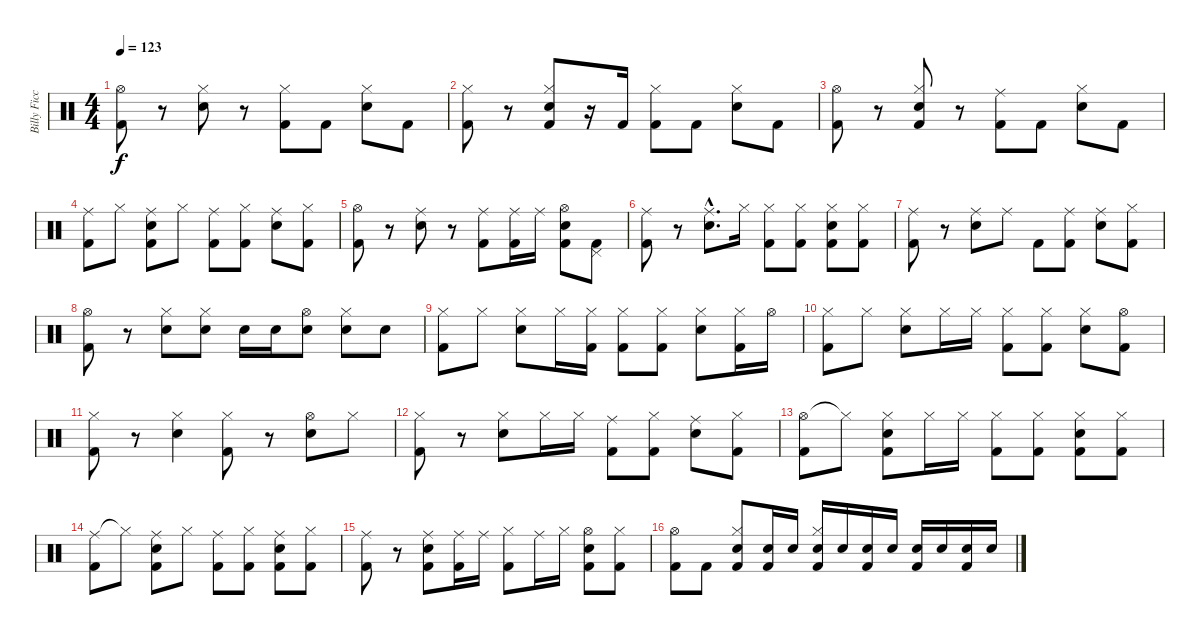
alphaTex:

\track ("Billy Ficca" "Billy Ficc") {instrument percussion}
\staff {score}
\articulation defaults
\ts (4 4)
\tempo 123
\clef neutral
\ks c
("Hi-Hat (open)" "Kick (hit) 2").8{dy f} r.8 ("Hi-Hat (closed)" "Snare (hit) 2").8 r.8 ("Hi-Hat (closed)" "Kick (hit) 2").8 "Kick (hit) 2".8 ("Hi-Hat (closed)" "Snare (hit) 2").8 "Kick (hit) 2".8 |
("Hi-Hat (closed)" "Kick (hit) 2").8 r.8 ("Hi-Hat (closed)" "Snare (hit) 2" "Kick (hit) 2").8 r.16 "Kick (hit) 2".16 ("Hi-Hat (closed)" "Kick (hit) 2").8 "Kick (hit) 2".8 ("Hi-Hat (closed)" "Snare (hit) 2").8 "Kick (hit) 2".8 |
("Hi-Hat (open)" "Kick (hit) 2").8 r.8 ("Hi-Hat (closed)" "Snare (hit) 2" "Kick (hit) 2").8 r.8 ("Ride (middle)" "Kick (hit) 2").8 "Kick (hit) 2".8 ("Hi-Hat (closed)" "Snare (hit) 2").8 "Kick (hit) 2".8 |
("Ride (middle)" "Kick (hit) 2").8 "Hi-Hat (closed)".8 ("Ride (middle)" "Snare (hit) 2" "Kick (hit) 2").8 "Hi-Hat (closed)".8 ("Ride (middle)" "Kick (hit) 2").8 ("Hi-Hat (closed)" "Kick (hit) 2").8 ("Ride (middle)" "Snare (hit) 2").8 ("Hi-Hat (closed)" "Kick (hit) 2").8 |
("Hi-Hat (open)" "Kick (hit) 2").8 r.8 ("Ride (middle)" "Snare (hit) 2").8 r.8 ("Ride (middle)" "Kick (hit) 2").8 ("Ride (middle)" "Kick (hit) 2").16 "Ride (middle)".16 ("Hi-Hat (open)" "Snare (hit) 2" "Kick (hit) 2").8 ("Pedal Hi-Hat (hit)" "Kick (hit) 2").8 |
("Ride (middle)" "Kick (hit) 2").8 r.8 ("Ride (middle)"{hac} "Snare (hit) 2"{hac}).8{d} "Hi-Hat (closed)".16 ("Hi-Hat (closed)" "Kick (hit) 2").8 ("Hi-Hat (closed)" "Kick (hit) 2").8 ("Hi-Hat (closed)" "Snare (hit) 2" "Kick (hit) 2").8 ("Hi-Hat (closed)" "Kick (hit) 2").8 |
("Ride (middle)" "Kick (hit) 2").8 r.8 ("Ride (middle)" "Snare (hit) 2").8 "Ride (middle)".8 "Kick (hit) 2".8 ("Ride (middle)" "Kick (hit) 2").8 ("Ride (middle)" "Snare (hit) 2").8 ("Hi-Hat (closed)" "Kick (hit) 2").8 |
("Hi-Hat (open)" "Kick (hit) 2").8 r.8 ("Hi-Hat (closed)" "Snare (hit) 2").8 ("Hi-Hat (closed)" "Snare (hit) 2").8 "Snare (hit) 2".16 "Snare (hit) 2".16 ("Hi-Hat (open)" "Snare (hit) 2").8 ("Hi-Hat (closed)" "Snare (hit) 2").8 "Snare (hit) 2".8 |
("Hi-Hat (closed)" "Kick (hit) 2").8 "Hi-Hat (closed)".8 ("Hi-Hat (closed)" "Snare (hit) 2").8 "Hi-Hat (closed)".16 ("Hi-Hat (closed)" "Kick (hit) 2").16 ("Hi-Hat (closed)" "Kick (hit) 2").8 ("Hi-Hat (closed)" "Kick (hit) 2").8 ("Hi-Hat (closed)" "Snare (hit) 2").8 ("Hi-Hat (closed)" "Kick (hit) 2").16 "Hi-Hat (open)".16 |
("Hi-Hat (closed)" "Kick (hit) 2").8 "Hi-Hat (closed)".8 ("Hi-Hat (closed)" "Snare (hit) 2").8 "Hi-Hat (closed)".16 "Hi-Hat (closed)".16 ("Hi-Hat (closed)" "Kick (hit) 2").8 ("Hi-Hat (closed)" "Kick (hit) 2").8 ("Hi-Hat (closed)" "Snare (hit) 2").8 ("Hi-Hat (open)" "Kick (hit) 2").8 |
("Hi-Hat (closed)" "Kick (hit) 2").8 r.8 ("Hi-Hat (closed)" "Snare (hit) 2").4 ("Hi-Hat (closed)" "Kick (hit) 2").8 r.8 ("Hi-Hat (open)" "Snare (hit) 2").8 "Hi-Hat (closed)".8 |
("Hi-Hat (closed)" "Kick (hit) 2").8 r.8 ("Hi-Hat (closed)" "Snare (hit) 2").8 "Hi-Hat (closed)".16 "Hi-Hat (closed)".16 ("Ride (middle)" "Kick (hit) 2").8 ("Hi-Hat (closed)" "Kick (hit) 2").8 ("Ride (middle)" "Snare (hit) 2").8 ("Hi-Hat (closed)" "Kick (hit) 2").8 |
("Hi-Hat (open)" "Kick (hit) 2").8 "Hi-Hat (closed)"{t}.8 ("Hi-Hat (closed)" "Snare (hit) 2" "Kick (hit) 2").8 "Hi-Hat (closed)".16 "Hi-Hat (closed)".16 ("Hi-Hat (closed)" "Kick (hit) 2").8 ("Hi-Hat (closed)" "Kick (hit) 2").8 ("Hi-Hat (closed)" "Snare (hit) 2" "Kick (hit) 2").8 ("Hi-Hat (closed)" "Kick (hit) 2").8 |
("Ride (middle)" "Kick (hit) 2").8 "Hi-Hat (closed)"{t}.8 ("Ride (middle)" "Snare (hit) 2" "Kick (hit) 2").8 "Hi-Hat (closed)".8 ("Ride (middle)" "Kick (hit) 2").8 ("Hi-Hat (closed)" "Kick (hit) 2").8 ("Ride (middle)" "Snare (hit) 2" "Kick (hit) 2").8 ("Hi-Hat (closed)" "Kick (hit) 2").8 |
("Ride (middle)" "Kick (hit) 2").8 r.8 ("Ride (middle)" "Snare (hit) 2" "Kick (hit) 2").8 ("Ride (middle)" "Kick (hit) 2").16 "Ride (middle)".16 ("Hi-Hat (closed)" "Kick (hit) 2").8 "Ride (middle)".16 "Hi-Hat (closed)".16 ("Hi-Hat (open)" "Snare (hit) 2" "Kick (hit) 2").8 ("Hi-Hat (closed)" "Kick (hit) 2").8 |
("Hi-Hat (open)" "Kick (hit) 2").8 "Kick (hit) 2".8 ("Hi-Hat (closed)" "Snare (hit) 2" "Kick (hit) 2").8 ("Snare (hit) 2" "Kick (hit) 2").16 "Snare (hit) 2".16 ("Hi-Hat (closed)" "Snare (hit) 2" "Kick (hit) 2").16 "Snare (hit) 2".16 ("Snare (hit) 2" "Kick (hit) 2").16 "Snare (hit) 2".16 ("Snare (hit) 2" "Kick (hit) 2").16 "Snare (hit) 2".16 ("Snare (hit) 2" "Kick (hit) 2").16 "Snare (hit) 2".16
